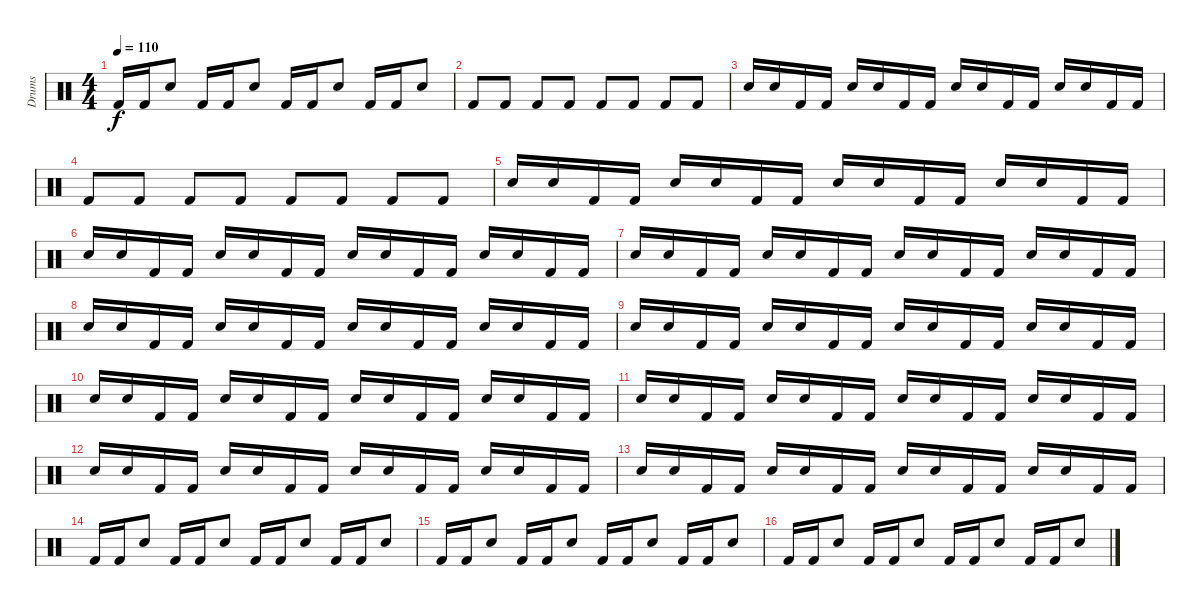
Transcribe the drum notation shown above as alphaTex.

\track ("Drums" "Drums") {instrument percussion}
\staff {score}
\articulation defaults
\ts (4 4)
\tempo 110
\clef neutral
\ks c "Kick (hit) 2".16{dy f} "Kick (hit) 2".16 "Snare (hit) 2".8 "Kick (hit) 2".16 "Kick (hit) 2".16 "Snare (hit) 2".8 "Kick (hit) 2".16 "Kick (hit) 2".16 "Snare (hit) 2".8 "Kick (hit) 2".16 "Kick (hit) 2".16 "Snare (hit) 2".8
|
"Kick (hit) 2".8 "Kick (hit) 2".8 "Kick (hit) 2".8 "Kick (hit) 2".8 "Kick (hit) 2".8 "Kick (hit) 2".8 "Kick (hit) 2".8 "Kick (hit) 2".8 |
"Snare (hit) 2".16 "Snare (hit) 2".16 "Kick (hit) 2".16 "Kick (hit) 2".16 "Snare (hit) 2".16 "Snare (hit) 2".16 "Kick (hit) 2".16 "Kick (hit) 2".16 "Snare (hit) 2".16 "Snare (hit) 2".16 "Kick (hit) 2".16 "Kick (hit) 2".16 "Snare (hit) 2".16 "Snare (hit) 2".16 "Kick (hit) 2".16 "Kick (hit) 2".16 |
"Kick (hit) 2".8 "Kick (hit) 2".8 "Kick (hit) 2".8 "Kick (hit) 2".8 "Kick (hit) 2".8 "Kick (hit) 2".8 "Kick (hit) 2".8 "Kick (hit) 2".8 |
"Snare (hit) 2".16 "Snare (hit) 2".16 "Kick (hit) 2".16 "Kick (hit) 2".16 "Snare (hit) 2".16 "Snare (hit) 2".16 "Kick (hit) 2".16 "Kick (hit) 2".16 "Snare (hit) 2".16 "Snare (hit) 2".16 "Kick (hit) 2".16 "Kick (hit) 2".16 "Snare (hit) 2".16 "Snare (hit) 2".16 "Kick (hit) 2".16 "Kick (hit) 2".16 |
"Snare (hit) 2".16 "Snare (hit) 2".16 "Kick (hit) 2".16 "Kick (hit) 2".16 "Snare (hit) 2".16 "Snare (hit) 2".16 "Kick (hit) 2".16 "Kick (hit) 2".16 "Snare (hit) 2".16 "Snare (hit) 2".16 "Kick (hit) 2".16 "Kick (hit) 2".16 "Snare (hit) 2".16 "Snare (hit) 2".16 "Kick (hit) 2".16 "Kick (hit) 2".16 |
"Snare (hit) 2".16 "Snare (hit) 2".16 "Kick (hit) 2".16 "Kick (hit) 2".16 "Snare (hit) 2".16 "Snare (hit) 2".16 "Kick (hit) 2".16 "Kick (hit) 2".16 "Snare (hit) 2".16 "Snare (hit) 2".16 "Kick (hit) 2".16 "Kick (hit) 2".16 "Snare (hit) 2".16 "Snare (hit) 2".16 "Kick (hit) 2".16 "Kick (hit) 2".16 |
"Snare (hit) 2".16 "Snare (hit) 2".16 "Kick (hit) 2".16 "Kick (hit) 2".16 "Snare (hit) 2".16 "Snare (hit) 2".16 "Kick (hit) 2".16 "Kick (hit) 2".16 "Snare (hit) 2".16 "Snare (hit) 2".16 "Kick (hit) 2".16 "Kick (hit) 2".16 "Snare (hit) 2".16 "Snare (hit) 2".16 "Kick (hit) 2".16 "Kick (hit) 2".16 |
"Snare (hit) 2".16 "Snare (hit) 2".16 "Kick (hit) 2".16 "Kick (hit) 2".16 "Snare (hit) 2".16 "Snare (hit) 2".16 "Kick (hit) 2".16 "Kick (hit) 2".16 "Snare (hit) 2".16 "Snare (hit) 2".16 "Kick (hit) 2".16 "Kick (hit) 2".16 "Snare (hit) 2".16 "Snare (hit) 2".16 "Kick (hit) 2".16 "Kick (hit) 2".16 |
"Snare (hit) 2".16 "Snare (hit) 2".16 "Kick (hit) 2".16 "Kick (hit) 2".16 "Snare (hit) 2".16 "Snare (hit) 2".16 "Kick (hit) 2".16 "Kick (hit) 2".16 "Snare (hit) 2".16 "Snare (hit) 2".16 "Kick (hit) 2".16 "Kick (hit) 2".16 "Snare (hit) 2".16 "Snare (hit) 2".16 "Kick (hit) 2".16 "Kick (hit) 2".16 |
"Snare (hit) 2".16 "Snare (hit) 2".16 "Kick (hit) 2".16 "Kick (hit) 2".16 "Snare (hit) 2".16 "Snare (hit) 2".16 "Kick (hit) 2".16 "Kick (hit) 2".16 "Snare (hit) 2".16 "Snare (hit) 2".16 "Kick (hit) 2".16 "Kick (hit) 2".16 "Snare (hit) 2".16 "Snare (hit) 2".16 "Kick (hit) 2".16 "Kick (hit) 2".16 |
"Snare (hit) 2".16 "Snare (hit) 2".16 "Kick (hit) 2".16 "Kick (hit) 2".16 "Snare (hit) 2".16 "Snare (hit) 2".16 "Kick (hit) 2".16 "Kick (hit) 2".16 "Snare (hit) 2".16 "Snare (hit) 2".16 "Kick (hit) 2".16 "Kick (hit) 2".16 "Snare (hit) 2".16 "Snare (hit) 2".16 "Kick (hit) 2".16 "Kick (hit) 2".16 |
"Snare (hit) 2".16 "Snare (hit) 2".16 "Kick (hit) 2".16 "Kick (hit) 2".16 "Snare (hit) 2".16 "Snare (hit) 2".16 "Kick (hit) 2".16 "Kick (hit) 2".16 "Snare (hit) 2".16 "Snare (hit) 2".16 "Kick (hit) 2".16 "Kick (hit) 2".16 "Snare (hit) 2".16 "Snare (hit) 2".16 "Kick (hit) 2".16 "Kick (hit) 2".16 |
"Kick (hit) 2".16 "Kick (hit) 2".16 "Snare (hit) 2".8 "Kick (hit) 2".16 "Kick (hit) 2".16 "Snare (hit) 2".8 "Kick (hit) 2".16 "Kick (hit) 2".16 "Snare (hit) 2".8 "Kick (hit) 2".16 "Kick (hit) 2".16 "Snare (hit) 2".8 |
"Kick (hit) 2".16 "Kick (hit) 2".16 "Snare (hit) 2".8 "Kick (hit) 2".16 "Kick (hit) 2".16 "Snare (hit) 2".8 "Kick (hit) 2".16 "Kick (hit) 2".16 "Snare (hit) 2".8 "Kick (hit) 2".16 "Kick (hit) 2".16 "Snare (hit) 2".8 |
"Kick (hit) 2".16 "Kick (hit) 2".16 "Snare (hit) 2".8 "Kick (hit) 2".16 "Kick (hit) 2".16 "Snare (hit) 2".8 "Kick (hit) 2".16 "Kick (hit) 2".16 "Snare (hit) 2".8 "Kick (hit) 2".16 "Kick (hit) 2".16 "Snare (hit) 2".8
